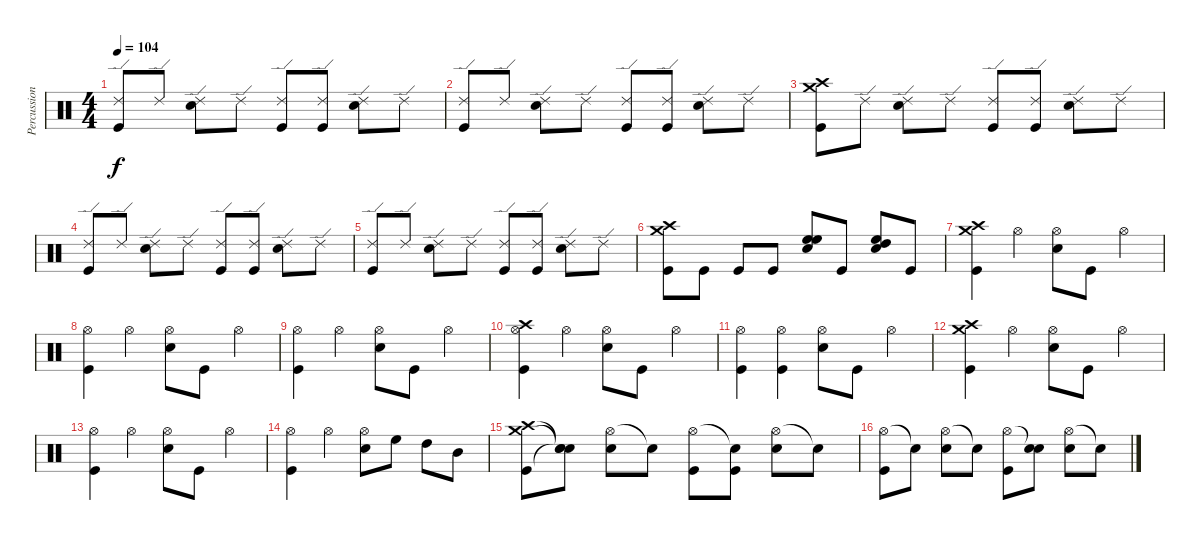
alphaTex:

\track ("Percussion" "Percussion") {instrument percussion}
\staff {score}
\articulation defaults
\ts (4 4)
\tempo 104
\clef neutral
\ks c
("Ride (edge) 2" "Kick (hit)").8{dy f} "Ride (edge) 2".8 ("Ride (edge) 2" "Snare (hit) 2").8 "Ride (edge) 2".8 ("Ride (edge) 2" "Kick (hit)").8 ("Ride (edge) 2" "Kick (hit)").8 ("Ride (edge) 2" "Snare (hit) 2").8 "Ride (edge) 2".8 |
("Ride (edge) 2" "Kick (hit)").8 "Ride (edge) 2".8 ("Ride (edge) 2" "Snare (hit) 2").8 "Ride (edge) 2".8 ("Ride (edge) 2" "Kick (hit)").8 ("Ride (edge) 2" "Kick (hit)").8 ("Ride (edge) 2" "Snare (hit) 2").8 "Ride (edge) 2".8 |
("Crash high (hit)" "Crash medium (hit)" "Kick (hit)").8 "Ride (edge) 2".8 ("Ride (edge) 2" "Snare (hit) 2").8 "Ride (edge) 2".8 ("Ride (edge) 2" "Kick (hit)").8 ("Ride (edge) 2" "Kick (hit)").8 ("Ride (edge) 2" "Snare (hit) 2").8 "Ride (edge) 2".8 |
("Ride (edge) 2" "Kick (hit)").8 "Ride (edge) 2".8 ("Ride (edge) 2" "Snare (hit) 2").8 "Ride (edge) 2".8 ("Ride (edge) 2" "Kick (hit)").8 ("Ride (edge) 2" "Kick (hit)").8 ("Ride (edge) 2" "Snare (hit) 2").8 "Ride (edge) 2".8 |
("Ride (edge) 2" "Kick (hit)").8 "Ride (edge) 2".8 ("Ride (edge) 2" "Snare (hit) 2").8 "Ride (edge) 2".8 ("Ride (edge) 2" "Kick (hit)").8 ("Ride (edge) 2" "Kick (hit)").8 ("Ride (edge) 2" "Snare (hit) 2").8 "Ride (edge) 2".8 |
("Crash medium (hit)" "Crash high (hit)" "Kick (hit)").8 "Kick (hit)".8 "Kick (hit)".8 "Kick (hit)".8 ("Electric Snare (hit)" "High Floor Tom (hit)" "High Floor Tom (hit)").8 "Kick (hit)".8 ("Snare (hit) 2" "High Floor Tom (hit)" "High Tom (hit)").8 "Kick (hit)".8 |
("Crash medium (hit)" "Crash high (hit)" "Kick (hit)").4 "Hi-Hat (open)".4 ("Hi-Hat (open)" "Snare (hit) 2").8 "Kick (hit)".8 "Hi-Hat (open)".4 |
("Hi-Hat (open)" "Kick (hit)").4 "Hi-Hat (open)".4 ("Hi-Hat (open)" "Snare (hit) 2").8 "Kick (hit)".8 "Hi-Hat (open)".4 |
("Hi-Hat (open)" "Kick (hit)").4 "Hi-Hat (open)".4 ("Hi-Hat (open)" "Snare (hit) 2").8 "Kick (hit)".8 "Hi-Hat (open)".4 |
("Hi-Hat (open)" "Crash high (hit)" "Kick (hit)").4 "Hi-Hat (open)".4 ("Hi-Hat (open)" "Snare (hit) 2").8 "Kick (hit)".8 "Hi-Hat (open)".4 |
("Hi-Hat (open)" "Kick (hit)").4 ("Hi-Hat (open)" "Kick (hit)").4 ("Hi-Hat (open)" "Snare (hit) 2").8 "Kick (hit)".8 "Hi-Hat (open)".4 |
("Crash medium (hit)" "Crash high (hit)" "Kick (hit)").4 "Hi-Hat (open)".4 ("Hi-Hat (open)" "Snare (hit) 2").8 "Kick (hit)".8 "Hi-Hat (open)".4 |
("Hi-Hat (open)" "Kick (hit)").4 "Hi-Hat (open)".4 ("Hi-Hat (open)" "Snare (hit) 2").8 "Kick (hit)".8 "Hi-Hat (open)".4 |
("Hi-Hat (open)" "Kick (hit)").4 "Hi-Hat (open)".4 ("Hi-Hat (open)" "Snare (hit) 2").8 "High Floor Tom (hit)".8 "High Tom (hit)".8 "Mid Tom (hit)".8 |
("Crash medium (hit)" "Crash high (hit)" "Kick (hit)").8 ("Snare (hit)"{t} "Snare (hit)"{t} "Snare (hit)"{t}).8 ("Hi-Hat (open)" "Snare (hit) 2").8 "Snare (hit)"{t}.8 ("Hi-Hat (open)" "Kick (hit)").8 ("Snare (hit)"{t} "Kick (hit)").8 ("Hi-Hat (open)" "Snare (hit) 2").8 "Snare (hit)"{t}.8 |
("Hi-Hat (open)" "Kick (hit)").8 "Snare (hit)"{t}.8 ("Hi-Hat (open)" "Snare (hit) 2").8 "Snare (hit)"{t}.8 ("Hi-Hat (open)" "Kick (hit)").8 ("Snare (hit)"{t} "Snare (hit) 2").8 ("Hi-Hat (open)" "Snare (hit) 2").8 "Snare (hit)"{t}.8
